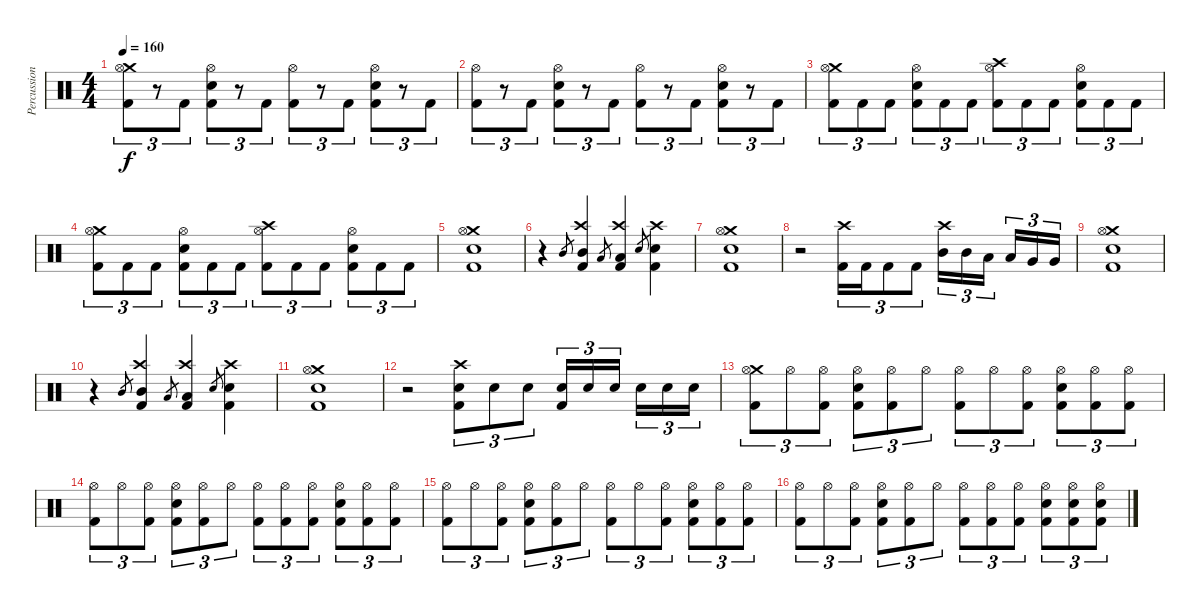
\track ("Percussion" "Percussion") {instrument percussion}
\staff {score}
\articulation defaults
\ts (4 4)
\tempo 160
\clef neutral
\ks c
("Crash medium (hit)" "Hi-Hat (open)" "Kick (hit) 2").8{tu (3 2) dy f} r.8{tu (3 2)} "Kick (hit) 2".8{tu (3 2)} ("Hi-Hat (open)" "Electric Snare (hit)" "Kick (hit) 2").8{tu (3 2)} r.8{tu (3 2)} "Kick (hit) 2".8{tu (3 2)} ("Hi-Hat (open)" "Kick (hit) 2").8{tu (3 2)} r.8{tu (3 2)} "Kick (hit) 2".8{tu (3 2)} ("Hi-Hat (open)" "Electric Snare (hit)" "Kick (hit) 2").8{tu (3 2)} r.8{tu (3 2)} "Kick (hit) 2".8{tu (3 2)} |
("Hi-Hat (open)" "Kick (hit) 2").8{tu (3 2)} r.8{tu (3 2)} "Kick (hit) 2".8{tu (3 2)} ("Hi-Hat (open)" "Electric Snare (hit)" "Kick (hit) 2").8{tu (3 2)} r.8{tu (3 2)} "Kick (hit) 2".8{tu (3 2)} ("Hi-Hat (open)" "Kick (hit) 2").8{tu (3 2)} r.8{tu (3 2)} "Kick (hit) 2".8{tu (3 2)} ("Hi-Hat (open)" "Electric Snare (hit)" "Kick (hit) 2").8{tu (3 2)} r.8{tu (3 2)} "Kick (hit) 2".8{tu (3 2)} |
("Crash medium (hit)" "Hi-Hat (open)" "Kick (hit) 2").8{tu (3 2)} "Kick (hit) 2".8{tu (3 2)} "Kick (hit) 2".8{tu (3 2)} ("Hi-Hat (open)" "Electric Snare (hit)" "Kick (hit) 2").8{tu (3 2)} "Kick (hit) 2".8{tu (3 2)} "Kick (hit) 2".8{tu (3 2)} ("Crash high (hit)" "Hi-Hat (open)" "Kick (hit) 2").8{tu (3 2)} "Kick (hit) 2".8{tu (3 2)} "Kick (hit) 2".8{tu (3 2)} ("Hi-Hat (open)" "Electric Snare (hit)" "Kick (hit) 2").8{tu (3 2)} "Kick (hit) 2".8{tu (3 2)} "Kick (hit) 2".8{tu (3 2)} |
("Crash medium (hit)" "Hi-Hat (open)" "Kick (hit) 2").8{tu (3 2)} "Kick (hit) 2".8{tu (3 2)} "Kick (hit) 2".8{tu (3 2)} ("Hi-Hat (open)" "Electric Snare (hit)" "Kick (hit) 2").8{tu (3 2)} "Kick (hit) 2".8{tu (3 2)} "Kick (hit) 2".8{tu (3 2)} ("Crash high (hit)" "Hi-Hat (open)" "Kick (hit) 2").8{tu (3 2)} "Kick (hit) 2".8{tu (3 2)} "Kick (hit) 2".8{tu (3 2)} ("Hi-Hat (open)" "Electric Snare (hit)" "Kick (hit) 2").8{tu (3 2)} "Kick (hit) 2".8{tu (3 2)} "Kick (hit) 2".8{tu (3 2)} |
("Crash medium (hit)" "Hi-Hat (open)" "Electric Snare (hit)" "Kick (hit) 2").1 |
r.4 "Mid Tom (hit)".8{gr} ("Crash high (hit)" "Mid Tom (hit)" "Kick (hit) 2").4 "Low Tom (hit)".8{gr} ("Crash high (hit)" "Low Tom (hit)" "Kick (hit) 2").4 "Electric Snare (hit)".8{gr} ("Crash high (hit)" "Electric Snare (hit)" "Kick (hit) 2").4 |
("Crash medium (hit)" "Hi-Hat (open)" "Electric Snare (hit)" "Kick (hit) 2").1 |
r.2 ("Crash high (hit)" "Kick (hit) 2").16{tu (3 2)} "Kick (hit) 2".16{tu (3 2)} "Kick (hit) 2".8{tu (3 2)} "Kick (hit) 2".8{tu (3 2)} ("Crash high (hit)" "Mid Tom (hit)").16{tu (3 2)} "Mid Tom (hit)".16{tu (3 2)} "Low Tom (hit)".16{tu (3 2)} "Low Tom (hit)".16{tu (3 2)} "Very Low Tom (hit)".16{tu (3 2)} "Very Low Tom (hit)".16{tu (3 2)} |
("Crash medium (hit)" "Hi-Hat (open)" "Electric Snare (hit)" "Kick (hit) 2").1 |
r.4 "Mid Tom (hit)".8{gr} ("Crash high (hit)" "Mid Tom (hit)" "Kick (hit) 2").4 "Low Tom (hit)".8{gr} ("Crash high (hit)" "Low Tom (hit)" "Kick (hit) 2").4 "Electric Snare (hit)".8{gr} ("Crash high (hit)" "Electric Snare (hit)" "Kick (hit) 2").4 |
("Crash medium (hit)" "Hi-Hat (open)" "Electric Snare (hit)" "Kick (hit) 2").1 |
r.2 ("Crash high (hit)" "Electric Snare (hit)" "Kick (hit) 2").8{tu (3 2)} "Electric Snare (hit)".8{tu (3 2)} "Electric Snare (hit)".8{tu (3 2)} ("Electric Snare (hit)" "Kick (hit) 2").16{tu (3 2)} "Electric Snare (hit)".16{tu (3 2)} "Electric Snare (hit)".16{tu (3 2)} "Electric Snare (hit)".16{tu (3 2)} "Electric Snare (hit)".16{tu (3 2)} "Electric Snare (hit)".16{tu (3 2)} |
("Crash medium (hit)" "Hi-Hat (open)" "Kick (hit) 2").8{tu (3 2)} "Hi-Hat (open)".8{tu (3 2)} ("Hi-Hat (open)" "Kick (hit) 2").8{tu (3 2)} ("Hi-Hat (open)" "Electric Snare (hit)" "Kick (hit) 2").8{tu (3 2)} ("Hi-Hat (open)" "Kick (hit) 2").8{tu (3 2)} "Hi-Hat (open)".8{tu (3 2)} ("Hi-Hat (open)" "Kick (hit) 2").8{tu (3 2)} "Hi-Hat (open)".8{tu (3 2)} ("Hi-Hat (open)" "Kick (hit) 2").8{tu (3 2)} ("Hi-Hat (open)" "Electric Snare (hit)" "Kick (hit) 2").8{tu (3 2)} ("Hi-Hat (open)" "Kick (hit) 2").8{tu (3 2)} ("Hi-Hat (open)" "Kick (hit) 2").8{tu (3 2)} |
("Hi-Hat (open)" "Kick (hit) 2").8{tu (3 2)} "Hi-Hat (open)".8{tu (3 2)} ("Hi-Hat (open)" "Kick (hit) 2").8{tu (3 2)} ("Hi-Hat (open)" "Electric Snare (hit)" "Kick (hit) 2").8{tu (3 2)} ("Hi-Hat (open)" "Kick (hit) 2").8{tu (3 2)} "Hi-Hat (open)".8{tu (3 2)} ("Hi-Hat (open)" "Kick (hit) 2").8{tu (3 2)} ("Hi-Hat (open)" "Kick (hit) 2").8{tu (3 2)} ("Hi-Hat (open)" "Kick (hit) 2").8{tu (3 2)} ("Hi-Hat (open)" "Electric Snare (hit)" "Kick (hit) 2").8{tu (3 2)} ("Hi-Hat (open)" "Kick (hit) 2").8{tu (3 2)} ("Hi-Hat (open)" "Kick (hit) 2").8{tu (3 2)} |
("Hi-Hat (open)" "Kick (hit) 2").8{tu (3 2)} "Hi-Hat (open)".8{tu (3 2)} ("Hi-Hat (open)" "Kick (hit) 2").8{tu (3 2)} ("Hi-Hat (open)" "Electric Snare (hit)" "Kick (hit) 2").8{tu (3 2)} ("Hi-Hat (open)" "Kick (hit) 2").8{tu (3 2)} "Hi-Hat (open)".8{tu (3 2)} ("Hi-Hat (open)" "Kick (hit) 2").8{tu (3 2)} "Hi-Hat (open)".8{tu (3 2)} ("Hi-Hat (open)" "Kick (hit) 2").8{tu (3 2)} ("Hi-Hat (open)" "Electric Snare (hit)" "Kick (hit) 2").8{tu (3 2)} ("Hi-Hat (open)" "Kick (hit) 2").8{tu (3 2)} ("Hi-Hat (open)" "Kick (hit) 2").8{tu (3 2)} |
("Hi-Hat (open)" "Kick (hit) 2").8{tu (3 2)} "Hi-Hat (open)".8{tu (3 2)} ("Hi-Hat (open)" "Kick (hit) 2").8{tu (3 2)} ("Hi-Hat (open)" "Electric Snare (hit)" "Kick (hit) 2").8{tu (3 2)} ("Hi-Hat (open)" "Kick (hit) 2").8{tu (3 2)} "Hi-Hat (open)".8{tu (3 2)} ("Hi-Hat (open)" "Kick (hit) 2").8{tu (3 2)} ("Hi-Hat (open)" "Kick (hit) 2").8{tu (3 2)} ("Hi-Hat (open)" "Kick (hit) 2").8{tu (3 2)} ("Hi-Hat (open)" "Electric Snare (hit)" "Kick (hit) 2").8{tu (3 2)} ("Hi-Hat (open)" "Electric Snare (hit)" "Kick (hit) 2").8{tu (3 2)} ("Hi-Hat (open)" "Electric Snare (hit)" "Kick (hit) 2").8{tu (3 2)}
